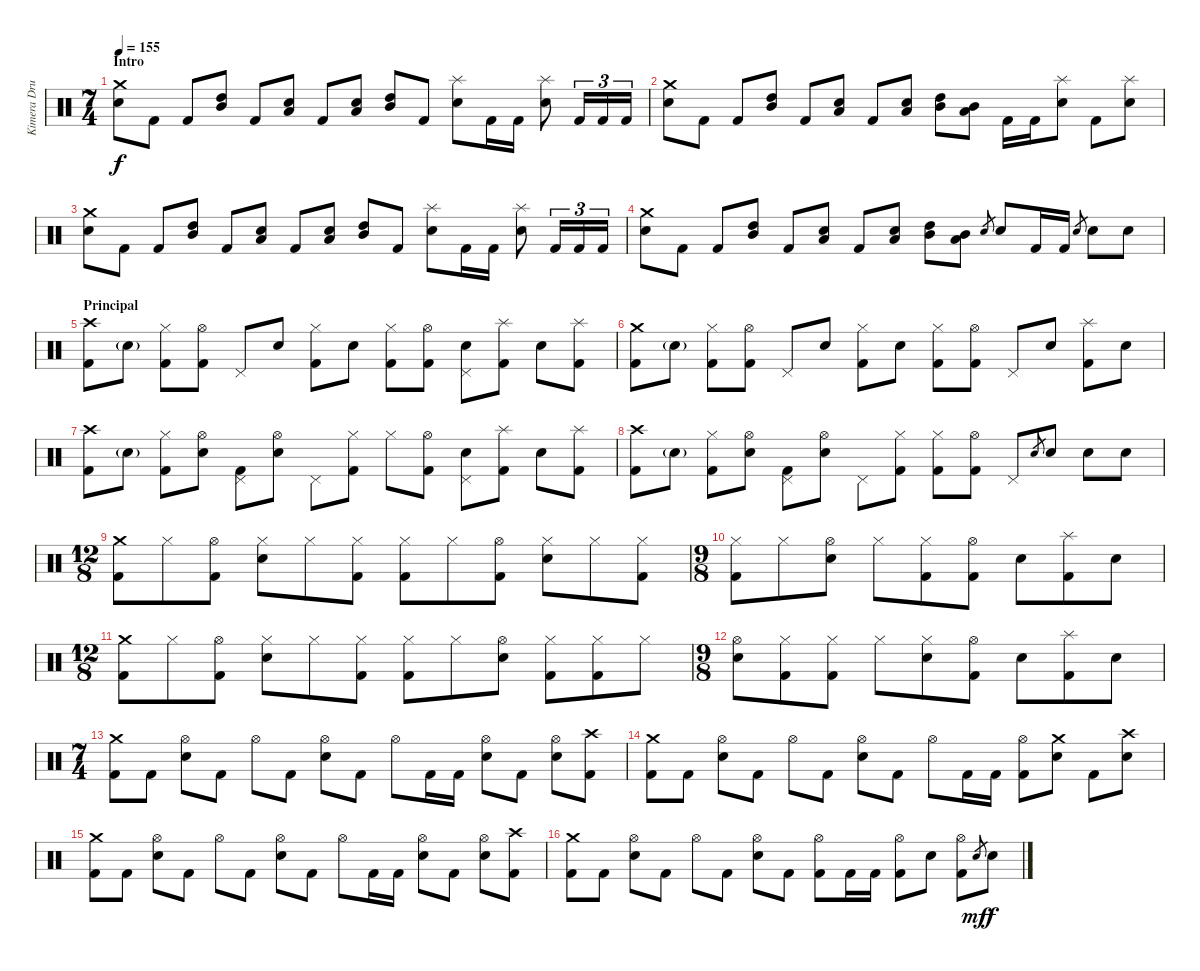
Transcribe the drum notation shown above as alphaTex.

\track ("Kimera Drummer" "Kimera Dru") {instrument percussion}
\staff {score}
\articulation defaults
\ts (7 4)
\section ("" "Intro")
\tempo 155
\clef neutral
\ks c
("Crash medium (hit)" "Electric Snare (hit)").8{dy f} "Kick (hit) 2".8 "Kick (hit) 2".8 ("High Tom (hit)" "Mid Tom (hit)").8 "Kick (hit) 2".8 ("Electric Snare (hit)" "Low Floor Tom (hit)").8 "Kick (hit) 2".8 ("Electric Snare (hit)" "Low Floor Tom (hit)").8 ("Mid Tom (hit)" "High Tom (hit)").8 "Kick (hit) 2".8 ("Splash (hit)" "Electric Snare (hit)").8 "Kick (hit) 2".16 "Kick (hit) 2".16 ("Splash (hit)" "Electric Snare (hit)").8 "Kick (hit) 2".16{tu (3 2)} "Kick (hit) 2".16{tu (3 2)} "Kick (hit) 2".16{tu (3 2)} |
("Crash medium (hit)" "Electric Snare (hit)").8 "Kick (hit) 2".8 "Kick (hit) 2".8 ("High Tom (hit)" "Mid Tom (hit)").8 "Kick (hit) 2".8 ("Electric Snare (hit)" "Low Floor Tom (hit)").8 "Kick (hit) 2".8 ("Electric Snare (hit)" "Low Floor Tom (hit)").8 ("Mid Tom (hit)" "High Tom (hit)").8 ("Mid Tom (hit)" "Low Floor Tom (hit)").8 "Kick (hit) 2".16 "Kick (hit) 2".16 ("Splash (hit)" "Electric Snare (hit)").8 "Kick (hit) 2".8 ("Splash (hit)" "Electric Snare (hit)").8 |
("Crash medium (hit)" "Electric Snare (hit)").8 "Kick (hit) 2".8 "Kick (hit) 2".8 ("High Tom (hit)" "Mid Tom (hit)").8 "Kick (hit) 2".8 ("Electric Snare (hit)" "Low Floor Tom (hit)").8 "Kick (hit) 2".8 ("Electric Snare (hit)" "Low Floor Tom (hit)").8 ("Mid Tom (hit)" "High Tom (hit)").8 "Kick (hit) 2".8 ("Splash (hit)" "Electric Snare (hit)").8 "Kick (hit) 2".16 "Kick (hit) 2".16 ("Splash (hit)" "Electric Snare (hit)").8 "Kick (hit) 2".16{tu (3 2)} "Kick (hit) 2".16{tu (3 2)} "Kick (hit) 2".16{tu (3 2)} |
("Crash medium (hit)" "Electric Snare (hit)").8 "Kick (hit) 2".8 "Kick (hit) 2".8 ("High Tom (hit)" "Mid Tom (hit)").8 "Kick (hit) 2".8 ("Electric Snare (hit)" "Low Floor Tom (hit)").8 "Kick (hit) 2".8 ("Electric Snare (hit)" "Low Floor Tom (hit)").8 ("Mid Tom (hit)" "High Tom (hit)").8 ("Mid Tom (hit)" "Low Floor Tom (hit)").8 "Electric Snare (hit)".8{gr} "Electric Snare (hit)".8 "Kick (hit) 2".16 "Kick (hit) 2".16 "Electric Snare (hit)".8{gr} "Electric Snare (hit)".8 "Electric Snare (hit)".8 |
\section ("" "Principal")
("Crash high (hit)" "Kick (hit) 2").8 "Electric Snare (hit)"{g}.8 ("Hi-Hat (closed)" "Kick (hit) 2").8 ("Hi-Hat (open)" "Kick (hit) 2").8 "Pedal Hi-Hat (hit)".8 "Electric Snare (hit)".8 ("Hi-Hat (closed)" "Kick (hit) 2").8 "Electric Snare (hit)".8 ("Hi-Hat (closed)" "Kick (hit) 2").8 ("Hi-Hat (open)" "Kick (hit) 2").8 ("Pedal Hi-Hat (hit)" "Electric Snare (hit)").8 ("Splash (hit)" "Kick (hit) 2").8 "Electric Snare (hit)".8 ("Splash (hit)" "Kick (hit) 2").8 |
("Crash medium (hit)" "Kick (hit) 2").8 "Electric Snare (hit)"{g}.8 ("Hi-Hat (closed)" "Kick (hit) 2").8 ("Hi-Hat (open)" "Kick (hit) 2").8 "Pedal Hi-Hat (hit)".8 "Electric Snare (hit)".8 ("Hi-Hat (closed)" "Kick (hit) 2").8 "Electric Snare (hit)".8 ("Hi-Hat (closed)" "Kick (hit) 2").8 ("Hi-Hat (open)" "Kick (hit) 2").8 "Pedal Hi-Hat (hit)".8 "Electric Snare (hit)".8 ("Splash (hit)" "Kick (hit) 2").8 "Electric Snare (hit)".8 |
("Crash high (hit)" "Kick (hit) 2").8 "Electric Snare (hit)"{g}.8 ("Hi-Hat (closed)" "Kick (hit) 2").8 ("Hi-Hat (open)" "Electric Snare (hit)").8 ("Pedal Hi-Hat (hit)" "Kick (hit) 2").8 ("Hi-Hat (open)" "Electric Snare (hit)").8 "Pedal Hi-Hat (hit)".8 ("Hi-Hat (closed)" "Kick (hit) 2").8 "Hi-Hat (closed)".8 ("Hi-Hat (open)" "Kick (hit) 2").8 ("Pedal Hi-Hat (hit)" "Electric Snare (hit)").8 ("Splash (hit)" "Kick (hit) 2").8 "Electric Snare (hit)".8 ("Splash (hit)" "Kick (hit) 2").8 |
("Crash high (hit)" "Kick (hit) 2").8 "Electric Snare (hit)"{g}.8 ("Hi-Hat (closed)" "Kick (hit) 2").8 ("Hi-Hat (open)" "Electric Snare (hit)").8 ("Pedal Hi-Hat (hit)" "Kick (hit) 2").8 ("Hi-Hat (open)" "Electric Snare (hit)").8 "Pedal Hi-Hat (hit)".8 ("Hi-Hat (closed)" "Kick (hit) 2").8 ("Hi-Hat (closed)" "Kick (hit) 2").8 ("Hi-Hat (open)" "Kick (hit) 2").8 "Pedal Hi-Hat (hit)".8 "Electric Snare (hit)".8{gr} "Electric Snare (hit)".8 "Electric Snare (hit)".8 "Electric Snare (hit)".8 |
\ts (12 8)
("Crash medium (hit)" "Kick (hit) 2").8 "Hi-Hat (closed)".8 ("Hi-Hat (open)" "Kick (hit) 2").8 ("Hi-Hat (closed)" "Electric Snare (hit)").8 "Hi-Hat (closed)".8 ("Hi-Hat (closed)" "Kick (hit) 2").8 ("Hi-Hat (closed)" "Kick (hit) 2").8 "Hi-Hat (closed)".8 ("Hi-Hat (open)" "Kick (hit) 2").8 ("Hi-Hat (closed)" "Electric Snare (hit)").8 "Hi-Hat (closed)".8 ("Hi-Hat (closed)" "Kick (hit) 2").8 |
\ts (9 8)
("Hi-Hat (closed)" "Kick (hit) 2").8 "Hi-Hat (closed)".8 ("Hi-Hat (open)" "Electric Snare (hit)").8 "Hi-Hat (closed)".8 ("Hi-Hat (closed)" "Kick (hit) 2").8 ("Hi-Hat (open)" "Kick (hit) 2").8 "Electric Snare (hit)".8 ("Splash (hit)" "Kick (hit) 2").8 "Electric Snare (hit)".8 |
\ts (12 8)
("Crash medium (hit)" "Kick (hit) 2").8 "Hi-Hat (closed)".8 ("Hi-Hat (open)" "Kick (hit) 2").8 ("Hi-Hat (closed)" "Electric Snare (hit)").8 "Hi-Hat (closed)".8 ("Hi-Hat (closed)" "Kick (hit) 2").8 ("Hi-Hat (closed)" "Kick (hit) 2").8 "Hi-Hat (closed)".8 ("Hi-Hat (open)" "Electric Snare (hit)").8 ("Hi-Hat (closed)" "Kick (hit) 2").8 ("Hi-Hat (closed)" "Kick (hit) 2").8 "Hi-Hat (closed)".8 |
\ts (9 8)
("Hi-Hat (open)" "Electric Snare (hit)").8 ("Hi-Hat (closed)" "Kick (hit) 2").8 ("Hi-Hat (closed)" "Kick (hit) 2").8 "Hi-Hat (closed)".8 ("Hi-Hat (closed)" "Electric Snare (hit)").8 ("Hi-Hat (open)" "Kick (hit) 2").8 "Electric Snare (hit)".8 ("Splash (hit)" "Kick (hit) 2").8 "Electric Snare (hit)".8 |
\ts (7 4)
("Crash medium (hit)" "Kick (hit) 2").8 "Kick (hit) 2".8 ("Hi-Hat (open)" "Electric Snare (hit)").8 "Kick (hit) 2".8 "Hi-Hat (open)".8 "Kick (hit) 2".8 ("Hi-Hat (open)" "Electric Snare (hit)").8 "Kick (hit) 2".8 "Hi-Hat (open)".8 "Kick (hit) 2".16 "Kick (hit) 2".16 ("Hi-Hat (open)" "Electric Snare (hit)").8 "Kick (hit) 2".8 ("Hi-Hat (open)" "Electric Snare (hit)").8 ("Crash high (hit)" "Kick (hit) 2").8 |
("Crash medium (hit)" "Kick (hit) 2").8 "Kick (hit) 2".8 ("Hi-Hat (open)" "Electric Snare (hit)").8 "Kick (hit) 2".8 "Hi-Hat (open)".8 "Kick (hit) 2".8 ("Hi-Hat (open)" "Electric Snare (hit)").8 "Kick (hit) 2".8 "Hi-Hat (open)".8 "Kick (hit) 2".16 "Kick (hit) 2".16 ("Hi-Hat (open)" "Kick (hit) 2").8 ("Crash medium (hit)" "Electric Snare (hit)").8 "Kick (hit) 2".8 ("Crash high (hit)" "Electric Snare (hit)").8 |
("Crash medium (hit)" "Kick (hit) 2").8 "Kick (hit) 2".8 ("Hi-Hat (open)" "Electric Snare (hit)").8 "Kick (hit) 2".8 "Hi-Hat (open)".8 "Kick (hit) 2".8 ("Hi-Hat (open)" "Electric Snare (hit)").8 "Kick (hit) 2".8 "Hi-Hat (open)".8 "Kick (hit) 2".16 "Kick (hit) 2".16 ("Hi-Hat (open)" "Electric Snare (hit)").8 "Kick (hit) 2".8 ("Hi-Hat (open)" "Electric Snare (hit)").8 ("Crash high (hit)" "Kick (hit) 2").8 |
("Crash medium (hit)" "Kick (hit) 2").8 "Kick (hit) 2".8 ("Hi-Hat (open)" "Electric Snare (hit)").8 "Kick (hit) 2".8 "Hi-Hat (open)".8 "Kick (hit) 2".8 ("Hi-Hat (open)" "Electric Snare (hit)").8 "Kick (hit) 2".8 ("Hi-Hat (open)" "Kick (hit) 2").8 "Kick (hit) 2".16 "Kick (hit) 2".16 ("Hi-Hat (open)" "Kick (hit) 2").8 "Electric Snare (hit)".8 ("Hi-Hat (open)" "Kick (hit) 2").8 "Electric Snare (hit)".8{gr dy mf} "Electric Snare (hit)".8{dy f}
